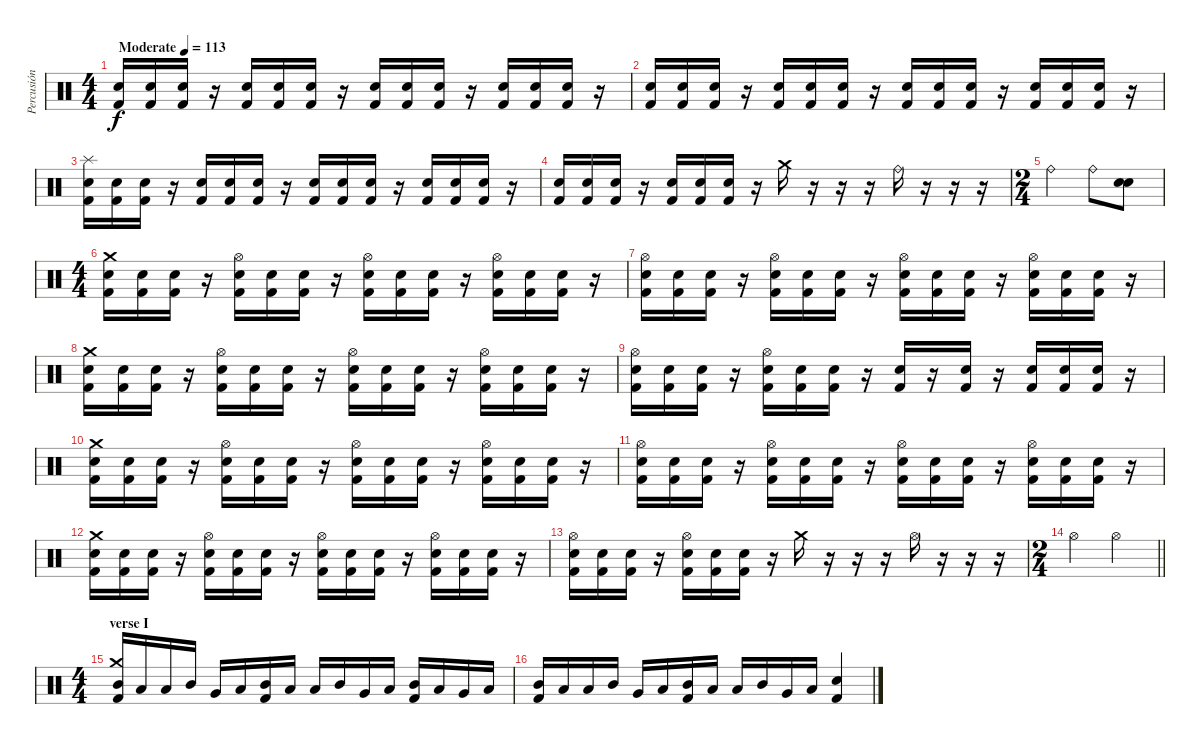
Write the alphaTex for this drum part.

\track ("Percusión" "Percusión") {instrument percussion}
\staff {score}
\articulation defaults
\ts (4 4)
\tempo (113 "Moderate")
\clef neutral
\ks c
("Electric Snare (hit)" "Kick (hit) 2").16{dy f} ("Electric Snare (hit)" "Kick (hit) 2").16 ("Electric Snare (hit)" "Kick (hit) 2").16 r.16 ("Electric Snare (hit)" "Kick (hit) 2").16 ("Electric Snare (hit)" "Kick (hit) 2").16 ("Electric Snare (hit)" "Kick (hit) 2").16 r.16 ("Electric Snare (hit)" "Kick (hit) 2").16 ("Electric Snare (hit)" "Kick (hit) 2").16 ("Electric Snare (hit)" "Kick (hit) 2").16 r.16 ("Electric Snare (hit)" "Kick (hit) 2").16 ("Electric Snare (hit)" "Kick (hit) 2").16 ("Electric Snare (hit)" "Kick (hit) 2").16 r.16 |
("Electric Snare (hit)" "Kick (hit) 2").16 ("Electric Snare (hit)" "Kick (hit) 2").16 ("Electric Snare (hit)" "Kick (hit) 2").16 r.16 ("Electric Snare (hit)" "Kick (hit) 2").16 ("Electric Snare (hit)" "Kick (hit) 2").16 ("Electric Snare (hit)" "Kick (hit) 2").16 r.16 ("Electric Snare (hit)" "Kick (hit) 2").16 ("Electric Snare (hit)" "Kick (hit) 2").16 ("Electric Snare (hit)" "Kick (hit) 2").16 r.16 ("Electric Snare (hit)" "Kick (hit) 2").16 ("Electric Snare (hit)" "Kick (hit) 2").16 ("Electric Snare (hit)" "Kick (hit) 2").16 r.16 |
("Splash (hit)" "Electric Snare (hit)" "Kick (hit) 2").16 ("Electric Snare (hit)" "Kick (hit) 2").16 ("Electric Snare (hit)" "Kick (hit) 2").16 r.16 ("Electric Snare (hit)" "Kick (hit) 2").16 ("Electric Snare (hit)" "Kick (hit) 2").16 ("Electric Snare (hit)" "Kick (hit) 2").16 r.16 ("Electric Snare (hit)" "Kick (hit) 2").16 ("Electric Snare (hit)" "Kick (hit) 2").16 ("Electric Snare (hit)" "Kick (hit) 2").16 r.16 ("Electric Snare (hit)" "Kick (hit) 2").16 ("Electric Snare (hit)" "Kick (hit) 2").16 ("Electric Snare (hit)" "Kick (hit) 2").16 r.16 |
("Electric Snare (hit)" "Kick (hit) 2").16 ("Electric Snare (hit)" "Kick (hit) 2").16 ("Electric Snare (hit)" "Kick (hit) 2").16 r.16 ("Electric Snare (hit)" "Kick (hit) 2").16 ("Electric Snare (hit)" "Kick (hit) 2").16 ("Electric Snare (hit)" "Kick (hit) 2").16 r.16 "Crash medium (hit)".16 r.16 r.16 r.16 "Ride (bell)".16 r.16 r.16 r.16 |
\ts (2 4)
"Ride (bell)".4 "Ride (bell)".8 ("Electric Snare (hit)" "Electric Snare (hit)").8 |
\ts (4 4)
("Crash medium (hit)" "Electric Snare (hit)" "Kick (hit) 2").16 ("Electric Snare (hit)" "Kick (hit) 2").16 ("Electric Snare (hit)" "Kick (hit) 2").16 r.16 ("Hi-Hat (open)" "Electric Snare (hit)" "Kick (hit) 2").16 ("Electric Snare (hit)" "Kick (hit) 2").16 ("Electric Snare (hit)" "Kick (hit) 2").16 r.16 ("Hi-Hat (open)" "Electric Snare (hit)" "Kick (hit) 2").16 ("Electric Snare (hit)" "Kick (hit) 2").16 ("Electric Snare (hit)" "Kick (hit) 2").16 r.16 ("Hi-Hat (open)" "Electric Snare (hit)" "Kick (hit) 2").16 ("Electric Snare (hit)" "Kick (hit) 2").16 ("Electric Snare (hit)" "Kick (hit) 2").16 r.16 |
("Hi-Hat (open)" "Electric Snare (hit)" "Kick (hit) 2").16 ("Electric Snare (hit)" "Kick (hit) 2").16 ("Electric Snare (hit)" "Kick (hit) 2").16 r.16 ("Hi-Hat (open)" "Electric Snare (hit)" "Kick (hit) 2").16 ("Electric Snare (hit)" "Kick (hit) 2").16 ("Electric Snare (hit)" "Kick (hit) 2").16 r.16 ("Hi-Hat (open)" "Electric Snare (hit)" "Kick (hit) 2").16 ("Electric Snare (hit)" "Kick (hit) 2").16 ("Electric Snare (hit)" "Kick (hit) 2").16 r.16 ("Hi-Hat (open)" "Electric Snare (hit)" "Kick (hit) 2").16 ("Electric Snare (hit)" "Kick (hit) 2").16 ("Electric Snare (hit)" "Kick (hit) 2").16 r.16 |
("Crash medium (hit)" "Electric Snare (hit)" "Kick (hit) 2").16 ("Electric Snare (hit)" "Kick (hit) 2").16 ("Electric Snare (hit)" "Kick (hit) 2").16 r.16 ("Hi-Hat (open)" "Electric Snare (hit)" "Kick (hit) 2").16 ("Electric Snare (hit)" "Kick (hit) 2").16 ("Electric Snare (hit)" "Kick (hit) 2").16 r.16 ("Hi-Hat (open)" "Electric Snare (hit)" "Kick (hit) 2").16 ("Electric Snare (hit)" "Kick (hit) 2").16 ("Electric Snare (hit)" "Kick (hit) 2").16 r.16 ("Hi-Hat (open)" "Electric Snare (hit)" "Kick (hit) 2").16 ("Electric Snare (hit)" "Kick (hit) 2").16 ("Electric Snare (hit)" "Kick (hit) 2").16 r.16 |
("Hi-Hat (open)" "Electric Snare (hit)" "Kick (hit) 2").16 ("Electric Snare (hit)" "Kick (hit) 2").16 ("Electric Snare (hit)" "Kick (hit) 2").16 r.16 ("Hi-Hat (open)" "Electric Snare (hit)" "Kick (hit) 2").16 ("Electric Snare (hit)" "Kick (hit) 2").16 ("Electric Snare (hit)" "Kick (hit) 2").16 r.16 ("Electric Snare (hit)" "Kick (hit) 2").16 r.16 ("Electric Snare (hit)" "Kick (hit) 2").16 r.16 ("Electric Snare (hit)" "Kick (hit) 2").16 ("Electric Snare (hit)" "Kick (hit) 2").16 ("Electric Snare (hit)" "Kick (hit) 2").16 r.16 |
("Crash medium (hit)" "Electric Snare (hit)" "Kick (hit) 2").16 ("Electric Snare (hit)" "Kick (hit) 2").16 ("Electric Snare (hit)" "Kick (hit) 2").16 r.16 ("Hi-Hat (open)" "Electric Snare (hit)" "Kick (hit) 2").16 ("Electric Snare (hit)" "Kick (hit) 2").16 ("Electric Snare (hit)" "Kick (hit) 2").16 r.16 ("Hi-Hat (open)" "Electric Snare (hit)" "Kick (hit) 2").16 ("Electric Snare (hit)" "Kick (hit) 2").16 ("Electric Snare (hit)" "Kick (hit) 2").16 r.16 ("Hi-Hat (open)" "Electric Snare (hit)" "Kick (hit) 2").16 ("Electric Snare (hit)" "Kick (hit) 2").16 ("Electric Snare (hit)" "Kick (hit) 2").16 r.16 |
("Hi-Hat (open)" "Electric Snare (hit)" "Kick (hit) 2").16 ("Electric Snare (hit)" "Kick (hit) 2").16 ("Electric Snare (hit)" "Kick (hit) 2").16 r.16 ("Hi-Hat (open)" "Electric Snare (hit)" "Kick (hit) 2").16 ("Electric Snare (hit)" "Kick (hit) 2").16 ("Electric Snare (hit)" "Kick (hit) 2").16 r.16 ("Hi-Hat (open)" "Electric Snare (hit)" "Kick (hit) 2").16 ("Electric Snare (hit)" "Kick (hit) 2").16 ("Electric Snare (hit)" "Kick (hit) 2").16 r.16 ("Hi-Hat (open)" "Electric Snare (hit)" "Kick (hit) 2").16 ("Electric Snare (hit)" "Kick (hit) 2").16 ("Electric Snare (hit)" "Kick (hit) 2").16 r.16 |
("Crash medium (hit)" "Electric Snare (hit)" "Kick (hit) 2").16 ("Electric Snare (hit)" "Kick (hit) 2").16 ("Electric Snare (hit)" "Kick (hit) 2").16 r.16 ("Hi-Hat (open)" "Electric Snare (hit)" "Kick (hit) 2").16 ("Electric Snare (hit)" "Kick (hit) 2").16 ("Electric Snare (hit)" "Kick (hit) 2").16 r.16 ("Hi-Hat (open)" "Electric Snare (hit)" "Kick (hit) 2").16 ("Electric Snare (hit)" "Kick (hit) 2").16 ("Electric Snare (hit)" "Kick (hit) 2").16 r.16 ("Hi-Hat (open)" "Electric Snare (hit)" "Kick (hit) 2").16 ("Electric Snare (hit)" "Kick (hit) 2").16 ("Electric Snare (hit)" "Kick (hit) 2").16 r.16 |
("Hi-Hat (open)" "Electric Snare (hit)" "Kick (hit) 2").16 ("Electric Snare (hit)" "Kick (hit) 2").16 ("Electric Snare (hit)" "Kick (hit) 2").16 r.16 ("Hi-Hat (open)" "Electric Snare (hit)" "Kick (hit) 2").16 ("Electric Snare (hit)" "Kick (hit) 2").16 ("Electric Snare (hit)" "Kick (hit) 2").16 r.16 "Crash medium (hit)".16 r.16 r.16 r.16 "Hi-Hat (open)".16 r.16 r.16 r.16 |
\ts (2 4)
\barLineRight lightlight "Hi-Hat (open)".4 "Hi-Hat (open)".4
|
\ts (4 4)
\section ("" "verse I")
("Crash medium (hit)" "Mid Tom (hit)" "Kick (hit) 2").16 "Low Tom (hit)".16 "Low Tom (hit)".16 "Mid Tom (hit)".16 "Very Low Tom (hit)".16 "Low Floor Tom (hit)".16 ("Mid Tom (hit)" "Kick (hit) 2").16 "Low Tom (hit)".16 "Low Tom (hit)".16 "Mid Tom (hit)".16 "Very Low Tom (hit)".16 "Low Floor Tom (hit)".16 ("Mid Tom (hit)" "Kick (hit) 2").16 "Low Tom (hit)".16 "Very Low Tom (hit)".16 "Low Floor Tom (hit)".16 |
("Mid Tom (hit)" "Kick (hit) 2").16 "Low Tom (hit)".16 "Low Tom (hit)".16 "Mid Tom (hit)".16 "Very Low Tom (hit)".16 "Low Floor Tom (hit)".16 ("Mid Tom (hit)" "Kick (hit) 2").16 "Low Tom (hit)".16 "Low Tom (hit)".16 "Mid Tom (hit)".16 "Very Low Tom (hit)".16 "Low Floor Tom (hit)".16 ("Electric Snare (hit)" "Kick (hit) 2").4
